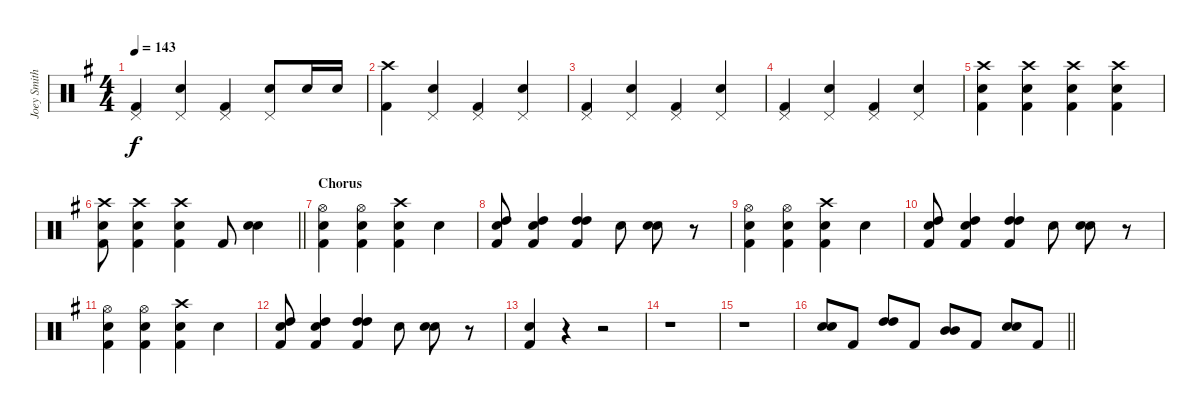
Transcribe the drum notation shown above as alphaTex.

\track ("Joey Smith" "Joey Smith") {instrument percussion}
\staff {score}
\articulation defaults
\ts (4 4)
\tempo 143
\clef neutral
\ks g
("Pedal Hi-Hat (hit)" "Kick (hit) 2").4{dy f} ("Pedal Hi-Hat (hit)" "Snare (hit) 2").4 ("Pedal Hi-Hat (hit)" "Kick (hit) 2").4 ("Pedal Hi-Hat (hit)" "Snare (hit) 2").8 "Snare (hit) 2".16 "Snare (hit) 2".16 |
("Crash high (hit)" "Kick (hit) 2").4 ("Pedal Hi-Hat (hit)" "Snare (hit) 2").4 ("Pedal Hi-Hat (hit)" "Kick (hit) 2").4 ("Pedal Hi-Hat (hit)" "Snare (hit) 2").4 |
("Pedal Hi-Hat (hit)" "Kick (hit) 2").4 ("Pedal Hi-Hat (hit)" "Snare (hit) 2").4 ("Pedal Hi-Hat (hit)" "Kick (hit) 2").4 ("Pedal Hi-Hat (hit)" "Snare (hit) 2").4 |
("Pedal Hi-Hat (hit)" "Kick (hit) 2").4 ("Pedal Hi-Hat (hit)" "Snare (hit) 2").4 ("Pedal Hi-Hat (hit)" "Kick (hit) 2").4 ("Pedal Hi-Hat (hit)" "Snare (hit) 2").4 |
("Crash high (hit)" "Snare (hit) 2" "Kick (hit) 2").4 ("Crash high (hit)" "Snare (hit) 2" "Kick (hit) 2").4 ("Crash high (hit)" "Snare (hit) 2" "Kick (hit) 2").4 ("Crash high (hit)" "Snare (hit) 2" "Kick (hit) 2").4 |
\barLineRight lightlight
("Crash high (hit)" "Snare (hit) 2" "Kick (hit) 2").8 ("Crash high (hit)" "Snare (hit) 2" "Kick (hit) 2").4 ("Crash high (hit)" "Snare (hit) 2" "Kick (hit) 2").4 "Kick (hit) 2".8 ("Snare (hit) 2" "Snare (hit) 2").4{bd 240} |
\section ("" "Chorus")
("Hi-Hat (open)" "Snare (hit) 2" "Kick (hit) 2").4 ("Hi-Hat (open)" "Snare (hit) 2" "Kick (hit) 2").4 ("Crash high (hit)" "Snare (hit) 2" "Kick (hit) 2").4 "Snare (hit) 2".4 |
("Snare (hit) 2" "High Tom (hit)" "Kick (hit) 2").8 ("Snare (hit) 2" "High Tom (hit)" "Kick (hit) 2").4 ("High Tom (hit)" "High Tom (hit)" "Kick (hit) 2").4 "Snare (hit) 2".8 ("Snare (hit) 2" "Snare (hit) 2").8{bd 240} r.8 |
("Hi-Hat (open)" "Snare (hit) 2" "Kick (hit) 2").4 ("Hi-Hat (open)" "Snare (hit) 2" "Kick (hit) 2").4 ("Crash high (hit)" "Snare (hit) 2" "Kick (hit) 2").4 "Snare (hit) 2".4 |
("Snare (hit) 2" "High Tom (hit)" "Kick (hit) 2").8 ("Snare (hit) 2" "High Tom (hit)" "Kick (hit) 2").4 ("High Tom (hit)" "High Tom (hit)" "Kick (hit) 2").4 "Snare (hit) 2".8 ("Snare (hit) 2" "Snare (hit) 2").8{bd 240} r.8 |
("Hi-Hat (open)" "Snare (hit) 2" "Kick (hit) 2").4 ("Hi-Hat (open)" "Snare (hit) 2" "Kick (hit) 2").4 ("Crash high (hit)" "Snare (hit) 2" "Kick (hit) 2").4 "Snare (hit) 2".4 |
("Snare (hit) 2" "High Tom (hit)" "Kick (hit) 2").8 ("Snare (hit) 2" "High Tom (hit)" "Kick (hit) 2").4 ("High Tom (hit)" "High Tom (hit)" "Kick (hit) 2").4 "Snare (hit) 2".8 ("Snare (hit) 2" "Snare (hit) 2").8{bd 240} r.8 |
("Snare (hit) 2" "Kick (hit) 2").4 r.4 r.2 |
r.1 |
r.1 |
\barLineRight lightlight
("Snare (hit) 2" "Snare (hit) 2").8{bd 240} "Kick (hit) 2".8 ("High Tom (hit)" "High Tom (hit)").8 "Kick (hit) 2".8 ("Mid Tom (hit)" "Mid Tom (hit)").8 "Kick (hit) 2".8 ("Snare (hit) 2" "Snare (hit) 2").8{bd 240} "Kick (hit) 2".8
